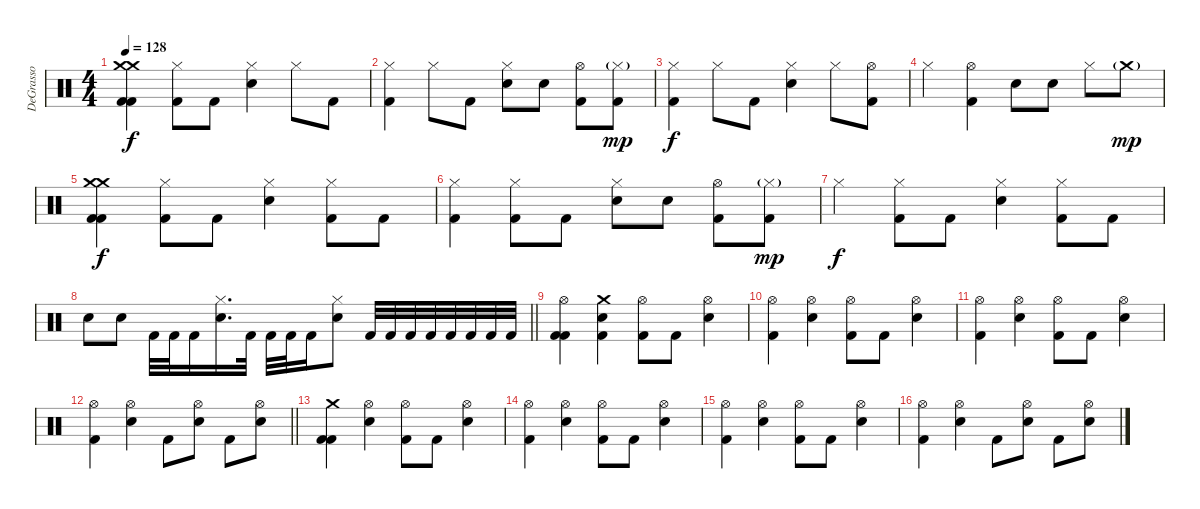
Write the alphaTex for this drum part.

\track ("DeGrasso" "DeGrasso") {instrument percussion}
\staff {score}
\articulation defaults
\ts (4 4)
\tempo 128
\clef neutral
\ks c
("Crash medium (hit)" "Crash medium (hit)" "Kick (hit) 2" "Kick (hit) 2").4{dy f} ("Hi-Hat (closed)" "Kick (hit) 2").8 "Kick (hit) 2".8 ("Hi-Hat (closed)" "Electric Snare (hit)").4 "Hi-Hat (closed)".8 "Kick (hit) 2".8 |
("Hi-Hat (closed)" "Kick (hit) 2").4 "Hi-Hat (closed)".8 "Kick (hit) 2".8 ("Hi-Hat (closed)" "Electric Snare (hit)").8 "Electric Snare (hit)".8 ("Hi-Hat (open)" "Kick (hit) 2").8 ("Hi-Hat (closed)"{g} "Kick (hit) 2").8{dy mp} |
("Hi-Hat (closed)" "Kick (hit) 2").4{dy f} "Hi-Hat (closed)".8 "Kick (hit) 2".8 ("Hi-Hat (closed)" "Electric Snare (hit)").4 "Hi-Hat (closed)".8 ("Hi-Hat (open)" "Kick (hit) 2").8 |
"Hi-Hat (closed)".4 ("Hi-Hat (open)" "Kick (hit) 2").4 "Electric Snare (hit)".8 "Electric Snare (hit)".8 "Hi-Hat (closed)".8 "Crash medium (hit)"{g}.8{dy mp} |
("Crash medium (hit)" "Crash medium (hit)" "Kick (hit) 2" "Kick (hit) 2").4{dy f} ("Hi-Hat (closed)" "Kick (hit) 2").8 "Kick (hit) 2".8 ("Hi-Hat (closed)" "Electric Snare (hit)").4 ("Hi-Hat (closed)" "Kick (hit) 2").8 "Kick (hit) 2".8 |
("Hi-Hat (closed)" "Kick (hit) 2").4 ("Hi-Hat (closed)" "Kick (hit) 2").8 "Kick (hit) 2".8 ("Hi-Hat (closed)" "Electric Snare (hit)").8 "Electric Snare (hit)".8 ("Hi-Hat (open)" "Kick (hit) 2").8 ("Hi-Hat (closed)"{g} "Kick (hit) 2").8{dy mp} |
"Hi-Hat (closed)".4{dy f} ("Hi-Hat (closed)" "Kick (hit) 2").8 "Kick (hit) 2".8 ("Hi-Hat (closed)" "Electric Snare (hit)").4 ("Hi-Hat (closed)" "Kick (hit) 2").8 "Kick (hit) 2".8 |
\barLineRight lightlight "Electric Snare (hit)".8 "Electric Snare (hit)".8 "Kick (hit) 2".32 "Kick (hit) 2".32 "Kick (hit) 2".16
("Hi-Hat (closed)" "Electric Snare (hit)").16{d} "Kick (hit) 2".32 "Kick (hit) 2".32 "Kick (hit) 2".32 "Kick (hit) 2".16 ("Hi-Hat (closed)" "Electric Snare (hit)").8 "Kick (hit) 2".32 "Kick (hit) 2".32 "Kick (hit) 2".32 "Kick (hit) 2".32 "Kick (hit) 2".32 "Kick (hit) 2".32 "Kick (hit) 2".32 "Kick (hit) 2".32 |
("Hi-Hat (open)" "Kick (hit) 2" "Kick (hit) 2").4 ("Crash medium (hit)" "Electric Snare (hit)" "Kick (hit) 2").4 ("Hi-Hat (open)" "Kick (hit) 2").8 "Kick (hit) 2".8 ("Hi-Hat (open)" "Electric Snare (hit)").4 |
("Hi-Hat (open)" "Kick (hit) 2").4 ("Hi-Hat (open)" "Electric Snare (hit)").4 ("Hi-Hat (open)" "Kick (hit) 2").8 "Kick (hit) 2".8 ("Hi-Hat (open)" "Electric Snare (hit)").4 |
("Hi-Hat (open)" "Kick (hit) 2").4 ("Hi-Hat (open)" "Electric Snare (hit)").4 ("Hi-Hat (open)" "Kick (hit) 2").8 "Kick (hit) 2".8 ("Hi-Hat (open)" "Electric Snare (hit)").4 |
\barLineRight lightlight
("Hi-Hat (open)" "Kick (hit) 2").4 ("Hi-Hat (open)" "Electric Snare (hit)").4 "Kick (hit) 2".8 ("Hi-Hat (open)" "Electric Snare (hit)").8 "Kick (hit) 2".8 ("Hi-Hat (open)" "Electric Snare (hit)").8 |
("Crash medium (hit)" "Kick (hit) 2" "Kick (hit) 2").4 ("Hi-Hat (open)" "Electric Snare (hit)").4 ("Hi-Hat (open)" "Kick (hit) 2").8 "Kick (hit) 2".8 ("Hi-Hat (open)" "Electric Snare (hit)").4 |
("Hi-Hat (open)" "Kick (hit) 2").4 ("Hi-Hat (open)" "Electric Snare (hit)").4 ("Hi-Hat (open)" "Kick (hit) 2").8 "Kick (hit) 2".8 ("Hi-Hat (open)" "Electric Snare (hit)").4 |
("Hi-Hat (open)" "Kick (hit) 2").4 ("Hi-Hat (open)" "Electric Snare (hit)").4 ("Hi-Hat (open)" "Kick (hit) 2").8 "Kick (hit) 2".8 ("Hi-Hat (open)" "Electric Snare (hit)").4 |
("Hi-Hat (open)" "Kick (hit) 2").4 ("Hi-Hat (open)" "Electric Snare (hit)").4 "Kick (hit) 2".8 ("Hi-Hat (open)" "Electric Snare (hit)").8 "Kick (hit) 2".8 ("Hi-Hat (open)" "Electric Snare (hit)").8
